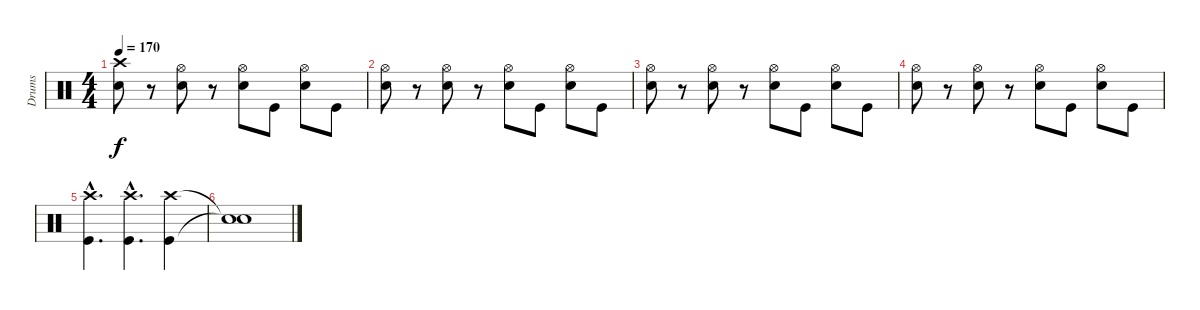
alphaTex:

\track ("Drums" "Drums") {instrument percussion}
\staff {score}
\articulation defaults
\ts (4 4)
\tempo 170
\clef neutral
\ks c
("Crash high (hit)" "Snare (hit) 2").8{dy f} r.8 ("Hi-Hat (open)" "Snare (hit) 2").8 r.8 ("Hi-Hat (open)" "Snare (hit) 2").8 "Kick (hit)".8 ("Hi-Hat (open)" "Snare (hit) 2").8 "Kick (hit)".8 |
("Hi-Hat (open)" "Snare (hit) 2").8 r.8 ("Hi-Hat (open)" "Snare (hit) 2").8 r.8 ("Hi-Hat (open)" "Snare (hit) 2").8 "Kick (hit)".8 ("Hi-Hat (open)" "Snare (hit) 2").8 "Kick (hit)".8 |
("Hi-Hat (open)" "Snare (hit) 2").8 r.8 ("Hi-Hat (open)" "Snare (hit) 2").8 r.8 ("Hi-Hat (open)" "Snare (hit) 2").8 "Kick (hit)".8 ("Hi-Hat (open)" "Snare (hit) 2").8 "Kick (hit)".8 |
("Hi-Hat (open)" "Snare (hit) 2").8 r.8 ("Hi-Hat (open)" "Snare (hit) 2").8 r.8 ("Hi-Hat (open)" "Snare (hit) 2").8 "Kick (hit)".8 ("Hi-Hat (open)" "Snare (hit) 2").8 "Kick (hit)".8 |
("Crash high (hit)"{hac} "Kick (hit)"{hac}).4{d} ("Crash high (hit)"{hac} "Kick (hit)"{hac}).4{d} ("Crash high (hit)" "Kick (hit)").4 |
("Snare (hit)"{t} "Snare (hit)"{t}).1
